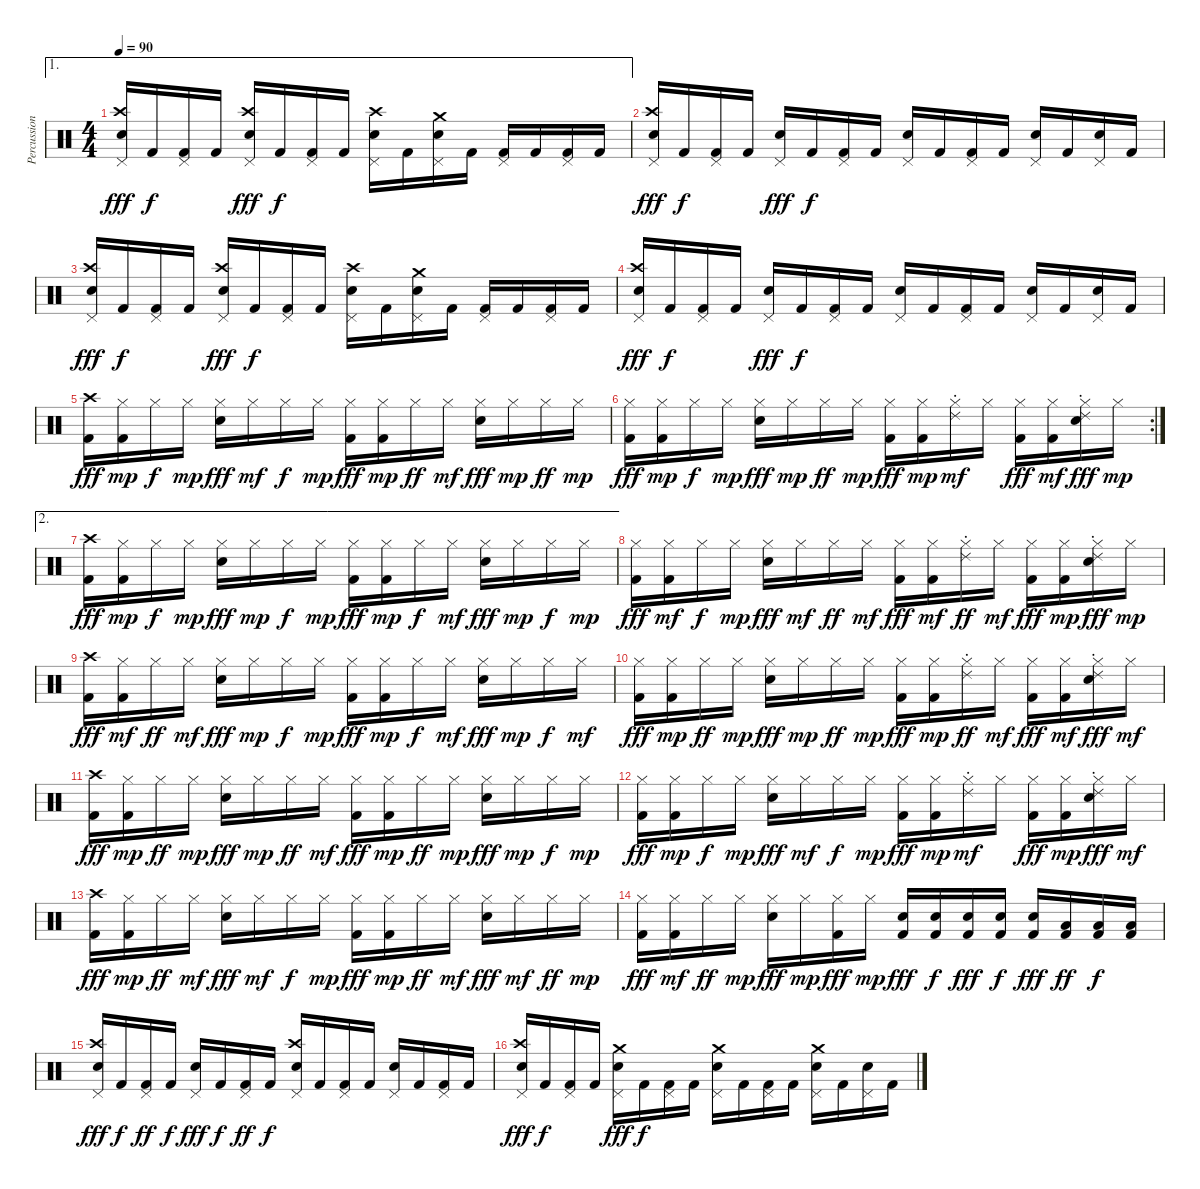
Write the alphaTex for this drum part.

\track ("Percussion" "Percussion") {instrument percussion}
\staff {score}
\articulation defaults
\ae 1
\ts (4 4)
\tempo 90
\clef neutral
\ks c
("Pedal Hi-Hat (hit)" "Crash high (hit)" "Electric Snare (hit)").16{dy fff} "Kick (hit) 2".16{dy f} ("Pedal Hi-Hat (hit)" "Kick (hit) 2").16 "Kick (hit) 2".16 ("Pedal Hi-Hat (hit)" "Crash high (hit)" "Electric Snare (hit)").16{dy fff} "Kick (hit) 2".16{dy f} ("Pedal Hi-Hat (hit)" "Kick (hit) 2").16 "Kick (hit) 2".16 ("Pedal Hi-Hat (hit)" "Crash high (hit)" "Electric Snare (hit)").16 "Kick (hit) 2".16 ("Pedal Hi-Hat (hit)" "Crash medium (hit)" "Electric Snare (hit)").16 "Kick (hit) 2".16 ("Pedal Hi-Hat (hit)" "Kick (hit) 2").16 "Kick (hit) 2".16 ("Pedal Hi-Hat (hit)" "Kick (hit) 2").16 "Kick (hit) 2".16 |
("Pedal Hi-Hat (hit)" "Crash high (hit)" "Electric Snare (hit)").16{dy fff} "Kick (hit) 2".16{dy f} ("Pedal Hi-Hat (hit)" "Kick (hit) 2").16 "Kick (hit) 2".16 ("Pedal Hi-Hat (hit)" "Electric Snare (hit)").16{dy fff} "Kick (hit) 2".16{dy f} ("Pedal Hi-Hat (hit)" "Kick (hit) 2").16 "Kick (hit) 2".16 ("Pedal Hi-Hat (hit)" "Electric Snare (hit)").16 "Kick (hit) 2".16 ("Pedal Hi-Hat (hit)" "Kick (hit) 2").16 "Kick (hit) 2".16 ("Pedal Hi-Hat (hit)" "Electric Snare (hit)").16 "Kick (hit) 2".16 ("Pedal Hi-Hat (hit)" "Electric Snare (hit)").16 "Kick (hit) 2".16 |
("Pedal Hi-Hat (hit)" "Crash high (hit)" "Electric Snare (hit)").16{dy fff} "Kick (hit) 2".16{dy f} ("Pedal Hi-Hat (hit)" "Kick (hit) 2").16 "Kick (hit) 2".16 ("Pedal Hi-Hat (hit)" "Crash high (hit)" "Electric Snare (hit)").16{dy fff} "Kick (hit) 2".16{dy f} ("Pedal Hi-Hat (hit)" "Kick (hit) 2").16 "Kick (hit) 2".16 ("Pedal Hi-Hat (hit)" "Crash high (hit)" "Electric Snare (hit)").16 "Kick (hit) 2".16 ("Pedal Hi-Hat (hit)" "Crash medium (hit)" "Electric Snare (hit)").16 "Kick (hit) 2".16 ("Pedal Hi-Hat (hit)" "Kick (hit) 2").16 "Kick (hit) 2".16 ("Pedal Hi-Hat (hit)" "Kick (hit) 2").16 "Kick (hit) 2".16 |
("Pedal Hi-Hat (hit)" "Crash high (hit)" "Electric Snare (hit)").16{dy fff} "Kick (hit) 2".16{dy f} ("Pedal Hi-Hat (hit)" "Kick (hit) 2").16 "Kick (hit) 2".16 ("Pedal Hi-Hat (hit)" "Electric Snare (hit)").16{dy fff} "Kick (hit) 2".16{dy f} ("Pedal Hi-Hat (hit)" "Kick (hit) 2").16 "Kick (hit) 2".16 ("Pedal Hi-Hat (hit)" "Electric Snare (hit)").16 "Kick (hit) 2".16 ("Pedal Hi-Hat (hit)" "Kick (hit) 2").16 "Kick (hit) 2".16 ("Pedal Hi-Hat (hit)" "Electric Snare (hit)").16 "Kick (hit) 2".16 ("Pedal Hi-Hat (hit)" "Electric Snare (hit)").16 "Kick (hit) 2".16 |
("Crash high (hit)" "Kick (hit) 2").16{dy fff} ("Hi-Hat (closed)" "Kick (hit) 2").16{dy mp} "Hi-Hat (closed)".16{dy f} "Hi-Hat (closed)".16{dy mp} ("Hi-Hat (closed)" "Electric Snare (hit)").16{dy fff} "Hi-Hat (closed)".16{dy mf} "Hi-Hat (closed)".16{dy f} "Hi-Hat (closed)".16{dy mp} ("Hi-Hat (closed)" "Kick (hit) 2").16{dy fff} ("Hi-Hat (closed)" "Kick (hit) 2").16{dy mp} "Hi-Hat (closed)".16{dy ff} "Hi-Hat (closed)".16{dy mf} ("Hi-Hat (closed)" "Electric Snare (hit)").16{dy fff} "Hi-Hat (closed)".16{dy mp} "Hi-Hat (closed)".16{dy ff} "Hi-Hat (closed)".16{dy mp} |
\rc 2
("Hi-Hat (closed)" "Kick (hit) 2").16{dy fff} ("Hi-Hat (closed)" "Kick (hit) 2").16{dy mp} "Hi-Hat (closed)".16{dy f} "Hi-Hat (closed)".16{dy mp} ("Hi-Hat (closed)" "Electric Snare (hit)").16{dy fff} "Hi-Hat (closed)".16{dy mp} "Hi-Hat (closed)".16{dy ff} "Hi-Hat (closed)".16{dy mp} ("Hi-Hat (closed)" "Kick (hit) 2").16{dy fff} ("Hi-Hat (closed)" "Kick (hit) 2").16{dy mp} ("Ride (choke) 2" "Hi-Hat (closed)").16{dy mf} "Hi-Hat (closed)".16 ("Hi-Hat (closed)" "Kick (hit) 2").16{dy fff} ("Hi-Hat (closed)" "Kick (hit) 2").16{dy mf} ("Ride (choke) 2" "Hi-Hat (closed)" "Electric Snare (hit)").16{dy fff} "Hi-Hat (closed)".16{dy mp} |
\ae 2
("Crash high (hit)" "Kick (hit) 2").16{dy fff} ("Hi-Hat (closed)" "Kick (hit) 2").16{dy mp} "Hi-Hat (closed)".16{dy f} "Hi-Hat (closed)".16{dy mp} ("Hi-Hat (closed)" "Electric Snare (hit)").16{dy fff} "Hi-Hat (closed)".16{dy mp} "Hi-Hat (closed)".16{dy f} "Hi-Hat (closed)".16{dy mp} ("Hi-Hat (closed)" "Kick (hit) 2").16{dy fff} ("Hi-Hat (closed)" "Kick (hit) 2").16{dy mp} "Hi-Hat (closed)".16{dy f} "Hi-Hat (closed)".16{dy mf} ("Hi-Hat (closed)" "Electric Snare (hit)").16{dy fff} "Hi-Hat (closed)".16{dy mp} "Hi-Hat (closed)".16{dy f} "Hi-Hat (closed)".16{dy mp} |
("Hi-Hat (closed)" "Kick (hit) 2").16{dy fff} ("Hi-Hat (closed)" "Kick (hit) 2").16{dy mf} "Hi-Hat (closed)".16{dy f} "Hi-Hat (closed)".16{dy mp} ("Hi-Hat (closed)" "Electric Snare (hit)").16{dy fff} "Hi-Hat (closed)".16{dy mf} "Hi-Hat (closed)".16{dy ff} "Hi-Hat (closed)".16{dy mf} ("Hi-Hat (closed)" "Kick (hit) 2").16{dy fff} ("Hi-Hat (closed)" "Kick (hit) 2").16{dy mf} ("Ride (choke) 2" "Hi-Hat (closed)").16{dy ff} "Hi-Hat (closed)".16{dy mf} ("Hi-Hat (closed)" "Kick (hit) 2").16{dy fff} ("Hi-Hat (closed)" "Kick (hit) 2").16{dy mp} ("Ride (choke) 2" "Hi-Hat (closed)" "Electric Snare (hit)").16{dy fff} "Hi-Hat (closed)".16{dy mp} |
("Crash high (hit)" "Kick (hit) 2").16{dy fff} ("Hi-Hat (closed)" "Kick (hit) 2").16{dy mf} "Hi-Hat (closed)".16{dy ff} "Hi-Hat (closed)".16{dy mf} ("Hi-Hat (closed)" "Electric Snare (hit)").16{dy fff} "Hi-Hat (closed)".16{dy mp} "Hi-Hat (closed)".16{dy f} "Hi-Hat (closed)".16{dy mp} ("Hi-Hat (closed)" "Kick (hit) 2").16{dy fff} ("Hi-Hat (closed)" "Kick (hit) 2").16{dy mp} "Hi-Hat (closed)".16{dy f} "Hi-Hat (closed)".16{dy mf} ("Hi-Hat (closed)" "Electric Snare (hit)").16{dy fff} "Hi-Hat (closed)".16{dy mp} "Hi-Hat (closed)".16{dy f} "Hi-Hat (closed)".16{dy mf} |
("Hi-Hat (closed)" "Kick (hit) 2").16{dy fff} ("Hi-Hat (closed)" "Kick (hit) 2").16{dy mp} "Hi-Hat (closed)".16{dy ff} "Hi-Hat (closed)".16{dy mp} ("Hi-Hat (closed)" "Electric Snare (hit)").16{dy fff} "Hi-Hat (closed)".16{dy mp} "Hi-Hat (closed)".16{dy ff} "Hi-Hat (closed)".16{dy mp} ("Hi-Hat (closed)" "Kick (hit) 2").16{dy fff} ("Hi-Hat (closed)" "Kick (hit) 2").16{dy mp} ("Ride (choke) 2" "Hi-Hat (closed)").16{dy ff} "Hi-Hat (closed)".16{dy mf} ("Hi-Hat (closed)" "Kick (hit) 2").16{dy fff} ("Hi-Hat (closed)" "Kick (hit) 2").16{dy mf} ("Ride (choke) 2" "Hi-Hat (closed)" "Electric Snare (hit)").16{dy fff} "Hi-Hat (closed)".16{dy mf} |
("Crash high (hit)" "Kick (hit) 2").16{dy fff} ("Hi-Hat (closed)" "Kick (hit) 2").16{dy mp} "Hi-Hat (closed)".16{dy ff} "Hi-Hat (closed)".16{dy mp} ("Hi-Hat (closed)" "Electric Snare (hit)").16{dy fff} "Hi-Hat (closed)".16{dy mp} "Hi-Hat (closed)".16{dy ff} "Hi-Hat (closed)".16{dy mf} ("Hi-Hat (closed)" "Kick (hit) 2").16{dy fff} ("Hi-Hat (closed)" "Kick (hit) 2").16{dy mp} "Hi-Hat (closed)".16{dy ff} "Hi-Hat (closed)".16{dy mp} ("Hi-Hat (closed)" "Electric Snare (hit)").16{dy fff} "Hi-Hat (closed)".16{dy mp} "Hi-Hat (closed)".16{dy f} "Hi-Hat (closed)".16{dy mp} |
("Hi-Hat (closed)" "Kick (hit) 2").16{dy fff} ("Hi-Hat (closed)" "Kick (hit) 2").16{dy mp} "Hi-Hat (closed)".16{dy f} "Hi-Hat (closed)".16{dy mp} ("Hi-Hat (closed)" "Electric Snare (hit)").16{dy fff} "Hi-Hat (closed)".16{dy mf} "Hi-Hat (closed)".16{dy f} "Hi-Hat (closed)".16{dy mp} ("Hi-Hat (closed)" "Kick (hit) 2").16{dy fff} ("Hi-Hat (closed)" "Kick (hit) 2").16{dy mp} ("Ride (choke) 2" "Hi-Hat (closed)").16{dy mf} "Hi-Hat (closed)".16 ("Hi-Hat (closed)" "Kick (hit) 2").16{dy fff} ("Hi-Hat (closed)" "Kick (hit) 2").16{dy mp} ("Ride (choke) 2" "Hi-Hat (closed)" "Electric Snare (hit)").16{dy fff} "Hi-Hat (closed)".16{dy mf} |
("Crash high (hit)" "Kick (hit) 2").16{dy fff} ("Hi-Hat (closed)" "Kick (hit) 2").16{dy mp} "Hi-Hat (closed)".16{dy ff} "Hi-Hat (closed)".16{dy mf} ("Hi-Hat (closed)" "Electric Snare (hit)").16{dy fff} "Hi-Hat (closed)".16{dy mf} "Hi-Hat (closed)".16{dy f} "Hi-Hat (closed)".16{dy mp} ("Hi-Hat (closed)" "Kick (hit) 2").16{dy fff} ("Hi-Hat (closed)" "Kick (hit) 2").16{dy mp} "Hi-Hat (closed)".16{dy ff} "Hi-Hat (closed)".16{dy mf} ("Hi-Hat (closed)" "Electric Snare (hit)").16{dy fff} "Hi-Hat (closed)".16{dy mf} "Hi-Hat (closed)".16{dy ff} "Hi-Hat (closed)".16{dy mp} |
("Hi-Hat (closed)" "Kick (hit) 2").16{dy fff} ("Hi-Hat (closed)" "Kick (hit) 2").16{dy mf} "Hi-Hat (closed)".16{dy ff} "Hi-Hat (closed)".16{dy mp} ("Hi-Hat (closed)" "Electric Snare (hit)").16{dy fff} "Hi-Hat (closed)".16{dy mp} ("Hi-Hat (closed)" "Kick (hit) 2").16{dy fff} "Hi-Hat (closed)".16{dy mp} ("Electric Snare (hit)" "Kick (hit) 2").16{dy fff} ("Electric Snare (hit)" "Kick (hit) 2").16{dy f} ("Electric Snare (hit)" "Kick (hit) 2").16{dy fff} ("Electric Snare (hit)" "Kick (hit) 2").16{dy f} ("Electric Snare (hit)" "Kick (hit) 2").16{dy fff} ("Low Tom (hit)" "Kick (hit) 2").16{dy ff} ("Low Tom (hit)" "Kick (hit) 2").16{dy f} ("Low Floor Tom (hit)" "Kick (hit) 2").16 |
("Pedal Hi-Hat (hit)" "Crash high (hit)" "Electric Snare (hit)").16{dy fff} "Kick (hit) 2".16{dy f} ("Pedal Hi-Hat (hit)" "Kick (hit) 2").16{dy ff} "Kick (hit) 2".16{dy f} ("Pedal Hi-Hat (hit)" "Electric Snare (hit)").16{dy fff} "Kick (hit) 2".16{dy f} ("Pedal Hi-Hat (hit)" "Kick (hit) 2").16{dy ff} "Kick (hit) 2".16{dy f} ("Pedal Hi-Hat (hit)" "Crash high (hit)" "Electric Snare (hit)").16 "Kick (hit) 2".16 ("Pedal Hi-Hat (hit)" "Kick (hit) 2").16 "Kick (hit) 2".16 ("Pedal Hi-Hat (hit)" "Electric Snare (hit)").16 "Kick (hit) 2".16 ("Pedal Hi-Hat (hit)" "Kick (hit) 2").16 "Kick (hit) 2".16 |
("Pedal Hi-Hat (hit)" "Crash high (hit)" "Electric Snare (hit)").16{dy fff} "Kick (hit) 2".16{dy f} ("Pedal Hi-Hat (hit)" "Kick (hit) 2").16 "Kick (hit) 2".16 ("Pedal Hi-Hat (hit)" "Crash medium (hit)" "Electric Snare (hit)").16{dy fff} "Kick (hit) 2".16{dy f} ("Pedal Hi-Hat (hit)" "Kick (hit) 2").16 "Kick (hit) 2".16 ("Pedal Hi-Hat (hit)" "Crash medium (hit)" "Electric Snare (hit)").16 "Kick (hit) 2".16 ("Pedal Hi-Hat (hit)" "Kick (hit) 2").16 "Kick (hit) 2".16 ("Pedal Hi-Hat (hit)" "Crash medium (hit)" "Electric Snare (hit)").16 "Kick (hit) 2".16 ("Pedal Hi-Hat (hit)" "Electric Snare (hit)").16 "Kick (hit) 2".16
